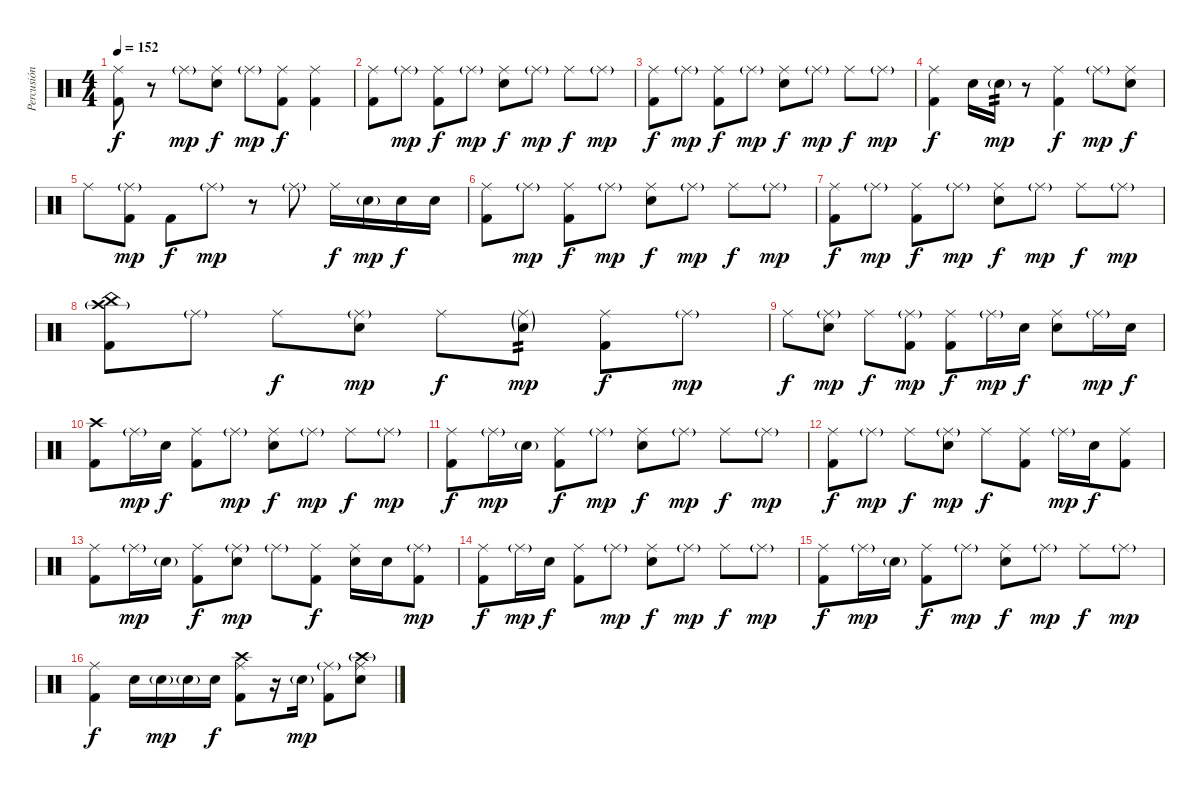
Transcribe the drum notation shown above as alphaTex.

\track ("Percusión" "Percusión") {instrument percussion}
\staff {score}
\articulation defaults
\ts (4 4)
\tempo 152
\clef neutral
\ks c
("Ride (middle)" "Kick (hit) 2").8{dy f} r.8 "Ride (middle)"{g}.8{dy mp} ("Ride (middle)" "Snare (hit) 2").8{dy f} "Ride (middle)"{g}.8{dy mp} ("Ride (middle)" "Kick (hit) 2").8{dy f} ("Ride (middle)" "Kick (hit) 2").4 |
("Ride (middle)" "Kick (hit) 2").8 "Ride (middle)"{g}.8{dy mp} ("Ride (middle)" "Kick (hit) 2").8{dy f} "Ride (middle)"{g}.8{dy mp} ("Ride (middle)" "Snare (hit) 2").8{dy f} "Ride (middle)"{g}.8{dy mp} "Ride (middle)".8{dy f} "Ride (middle)"{g}.8{dy mp} |
("Ride (middle)" "Kick (hit) 2").8{dy f} "Ride (middle)"{g}.8{dy mp} ("Ride (middle)" "Kick (hit) 2").8{dy f} "Ride (middle)"{g}.8{dy mp} ("Ride (middle)" "Snare (hit) 2").8{dy f} "Ride (middle)"{g}.8{dy mp} "Ride (middle)".8{dy f} "Ride (middle)"{g}.8{dy mp} |
("Ride (middle)" "Kick (hit) 2").4{dy f} "Snare (hit) 2".16 "Snare (hit) 2"{g}.16{tp 2 dy mp} r.8 ("Ride (middle)" "Kick (hit) 2").4{dy f} "Ride (middle)"{g}.8{dy mp} ("Ride (middle)" "Snare (hit) 2").8{dy f} |
"Ride (middle)".8 ("Ride (middle)"{g} "Kick (hit) 2").8{dy mp} "Kick (hit) 2".8{dy f} "Ride (middle)"{g}.8{dy mp} r.8 "Ride (middle)"{g}.8 "Ride (middle)".16{dy f} "Snare (hit) 2"{g}.16{dy mp} "Snare (hit) 2".16{dy f} "Snare (hit) 2".16 |
("Ride (middle)" "Kick (hit) 2").8 "Ride (middle)"{g}.8{dy mp} ("Ride (middle)" "Kick (hit) 2").8{dy f} "Ride (middle)"{g}.8{dy mp} ("Ride (middle)" "Snare (hit) 2").8{dy f} "Ride (middle)"{g}.8{dy mp} "Ride (middle)".8{dy f} "Ride (middle)"{g}.8{dy mp} |
("Ride (middle)" "Kick (hit) 2").8{dy f} "Ride (middle)"{g}.8{dy mp} ("Ride (middle)" "Kick (hit) 2").8{dy f} "Ride (middle)"{g}.8{dy mp} ("Ride (middle)" "Snare (hit) 2").8{dy f} "Ride (middle)"{g}.8{dy mp} "Ride (middle)".8{dy f} "Ride (middle)"{g}.8{dy mp} |
("China (hit)" "Crash high (hit)"{g} "Kick (hit) 2").8 "Ride (middle)"{g}.8 "Ride (middle)".8{dy f} ("Ride (middle)"{g} "Snare (hit) 2").8{dy mp} "Ride (middle)".8{dy f} ("Ride (middle)"{g} "Snare (hit) 2"{g}).8{tp 2 dy mp} ("Ride (middle)" "Kick (hit) 2").8{dy f} "Ride (middle)"{g}.8{dy mp} |
"Ride (middle)".8{dy f} ("Ride (middle)"{g} "Snare (hit) 2").8{dy mp} "Ride (middle)".8{dy f} ("Ride (middle)"{g} "Kick (hit) 2").8{dy mp} ("Ride (middle)" "Kick (hit) 2").8{dy f} "Ride (middle)"{g}.16{dy mp} "Snare (hit) 2".16{dy f} ("Ride (middle)" "Snare (hit) 2").8 "Ride (middle)"{g}.16{dy mp} "Snare (hit) 2".16{dy f} |
("Crash high (hit)" "Kick (hit) 2").8 "Ride (middle)"{g}.16{dy mp} "Snare (hit) 2".16{dy f} ("Ride (middle)" "Kick (hit) 2").8 "Ride (middle)"{g}.8{dy mp} ("Ride (middle)" "Snare (hit) 2").8{dy f} "Ride (middle)"{g}.8{dy mp} "Ride (middle)".8{dy f} "Ride (middle)"{g}.8{dy mp} |
("Ride (middle)" "Kick (hit) 2").8{dy f} "Ride (middle)"{g}.16{dy mp} "Snare (hit) 2"{g}.16 ("Ride (middle)" "Kick (hit) 2").8{dy f} "Ride (middle)"{g}.8{dy mp} ("Ride (middle)" "Snare (hit) 2").8{dy f} "Ride (middle)"{g}.8{dy mp} "Ride (middle)".8{dy f} "Ride (middle)"{g}.8{dy mp} |
("Ride (middle)" "Kick (hit) 2").8{dy f} "Ride (middle)"{g}.8{dy mp} "Ride (middle)".8{dy f} ("Ride (middle)"{g} "Snare (hit) 2").8{dy mp} "Ride (middle)".8{dy f} ("Ride (middle)" "Kick (hit) 2").8 "Ride (middle)"{g}.16{dy mp} "Snare (hit) 2".16{dy f} ("Ride (middle)" "Kick (hit) 2").8 |
("Ride (middle)" "Kick (hit) 2").8 "Ride (middle)"{g}.16{dy mp} "Snare (hit) 2"{g}.16 ("Ride (middle)" "Kick (hit) 2").8{dy f} ("Ride (middle)"{g} "Snare (hit) 2").8{dy mp} "Ride (middle)"{g}.8 ("Ride (middle)" "Kick (hit) 2").8{dy f} ("Ride (middle)" "Snare (hit) 2").16 "Snare (hit) 2".16 ("Ride (middle)"{g} "Kick (hit) 2").8{dy mp} |
("Ride (middle)" "Kick (hit) 2").8{dy f} "Ride (middle)"{g}.16{dy mp} "Snare (hit) 2".16{dy f} ("Ride (middle)" "Kick (hit) 2").8 "Ride (middle)"{g}.8{dy mp} ("Ride (middle)" "Snare (hit) 2").8{dy f} "Ride (middle)"{g}.8{dy mp} "Ride (middle)".8{dy f} "Ride (middle)"{g}.8{dy mp} |
("Ride (middle)" "Kick (hit) 2").8{dy f} "Ride (middle)"{g}.16{dy mp} "Snare (hit) 2"{g}.16 ("Ride (middle)" "Kick (hit) 2").8{dy f} "Ride (middle)"{g}.8{dy mp} ("Ride (middle)" "Snare (hit) 2").8{dy f} "Ride (middle)"{g}.8{dy mp} "Ride (middle)".8{dy f} "Ride (middle)"{g}.8{dy mp} |
("Ride (middle)" "Kick (hit) 2").4{dy f} "Snare (hit) 2".16 "Snare (hit) 2"{g}.16{dy mp} "Snare (hit) 2"{g}.16 "Snare (hit) 2".16{dy f} ("Crash high (hit)" "Ride (middle)" "Kick (hit) 2").8 r.16 "Snare (hit) 2"{g}.16{dy mp} ("Ride (middle)"{g} "Kick (hit) 2").8 ("Crash high (hit)"{g} "Ride (middle)" "Snare (hit) 2").8
